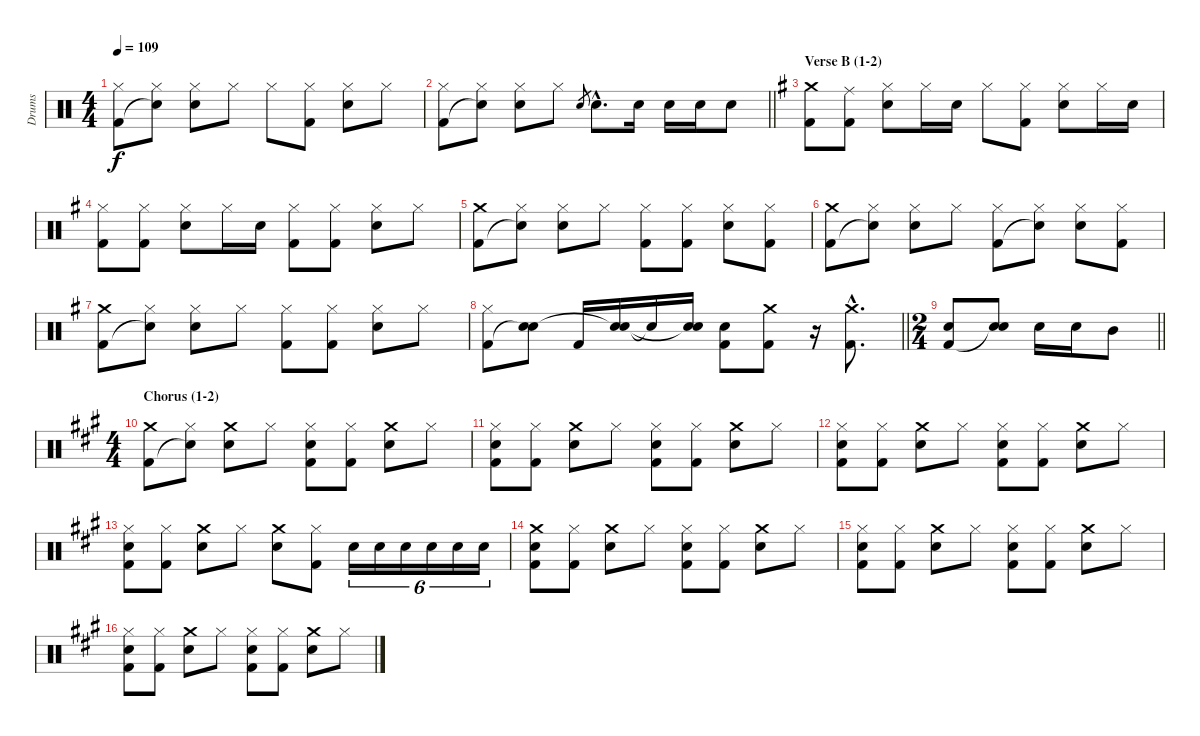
\track ("Drums" "Drums") {instrument percussion}
\staff {score}
\articulation defaults
\ts (4 4)
\tempo 109
\clef neutral
\ks aminor
("Hi-Hat (closed)" "Kick (hit) 2").8{dy f} ("Hi-Hat (closed)" "Snare (hit)"{t}).8 ("Hi-Hat (closed)" "Electric Snare (hit)").8 "Hi-Hat (closed)".8 "Hi-Hat (closed)".8 ("Hi-Hat (closed)" "Kick (hit) 2").8 ("Hi-Hat (closed)" "Electric Snare (hit)").8 "Hi-Hat (closed)".8 |
\barLineRight lightlight
("Hi-Hat (closed)" "Kick (hit) 2").8 ("Hi-Hat (closed)" "Snare (hit)"{t}).8 ("Hi-Hat (closed)" "Electric Snare (hit)").8 "Hi-Hat (closed)".8 "Electric Snare (hit)".8{gr} "Electric Snare (hit)"{hac}.8{d} "Electric Snare (hit)".16 "Electric Snare (hit)".16 "Electric Snare (hit)".16 "Electric Snare (hit)".8 |
\section ("" "Verse B (1-2)")
\ks eminor
("Crash medium (hit)" "Kick (hit) 2").8 ("Ride (middle)" "Kick (hit) 2").8 ("Hi-Hat (closed)" "Electric Snare (hit)").8 "Hi-Hat (closed)".16 "Electric Snare (hit)".16 "Hi-Hat (closed)".8 ("Hi-Hat (closed)" "Kick (hit) 2").8 ("Hi-Hat (closed)" "Electric Snare (hit)").8 "Hi-Hat (closed)".16 "Electric Snare (hit)".16 |
("Hi-Hat (closed)" "Kick (hit) 2").8 ("Hi-Hat (closed)" "Kick (hit) 2").8 ("Hi-Hat (closed)" "Electric Snare (hit)").8 "Hi-Hat (closed)".16 "Electric Snare (hit)".16 ("Hi-Hat (closed)" "Kick (hit) 2").8 ("Hi-Hat (closed)" "Kick (hit) 2").8 ("Hi-Hat (closed)" "Electric Snare (hit)").8 "Hi-Hat (closed)".8 |
("Crash medium (hit)" "Kick (hit) 2").8 ("Hi-Hat (closed)" "Snare (hit)"{t}).8 ("Hi-Hat (closed)" "Electric Snare (hit)").8 "Hi-Hat (closed)".8 ("Hi-Hat (closed)" "Kick (hit) 2").8 ("Hi-Hat (closed)" "Kick (hit) 2").8 ("Hi-Hat (closed)" "Electric Snare (hit)").8 ("Hi-Hat (closed)" "Kick (hit) 2").8 |
("Crash medium (hit)" "Kick (hit) 2").8 ("Hi-Hat (closed)" "Snare (hit)"{t}).8 ("Hi-Hat (closed)" "Electric Snare (hit)").8 "Hi-Hat (closed)".8 ("Hi-Hat (closed)" "Kick (hit) 2").8 ("Hi-Hat (closed)" "Snare (hit)"{t}).8 ("Hi-Hat (closed)" "Electric Snare (hit)").8 ("Hi-Hat (closed)" "Kick (hit) 2").8 |
("Crash medium (hit)" "Kick (hit) 2").8 ("Hi-Hat (closed)" "Snare (hit)"{t}).8 ("Hi-Hat (closed)" "Electric Snare (hit)").8 "Hi-Hat (closed)".8 ("Hi-Hat (closed)" "Kick (hit) 2").8 ("Hi-Hat (closed)" "Kick (hit) 2").8 ("Hi-Hat (closed)" "Electric Snare (hit)").8 "Hi-Hat (closed)".8 |
\barLineRight lightlight
("Hi-Hat (closed)" "Kick (hit) 2").8 ("Electric Snare (hit)" "Snare (hit)"{t}).8 "Kick (hit) 2".16 ("Electric Snare (hit)" "Snare (hit)"{t}).16 "Snare (hit)"{t}.16 ("Electric Snare (hit)" "Snare (hit)"{t}).16 ("Electric Snare (hit)" "Kick (hit) 2").8 ("Crash medium (hit)" "Kick (hit) 2").8 r.16 ("Crash medium (hit)"{hac} "Kick (hit) 2"{hac}).8{d} |
\ts (2 4)
\barLineRight lightlight
("Electric Snare (hit)" "Kick (hit) 2").8 ("Electric Snare (hit)" "Snare (hit)"{t}).8 "Electric Snare (hit)".16 "Electric Snare (hit)".16 "Mid Tom (hit)".8 |
\ts (4 4)
\section ("" "Chorus (1-2)")
\ks f#minor
("Crash medium (hit)" "Kick (hit) 2").8 ("Hi-Hat (closed)" "Snare (hit)"{t}).8 ("Crash medium (hit)" "Electric Snare (hit)").8 "Hi-Hat (closed)".8 ("Hi-Hat (closed)" "Electric Snare (hit)" "Kick (hit) 2").8 ("Hi-Hat (closed)" "Kick (hit) 2").8 ("Crash medium (hit)" "Electric Snare (hit)").8 "Hi-Hat (closed)".8 |
("Hi-Hat (closed)" "Electric Snare (hit)" "Kick (hit) 2").8 ("Hi-Hat (closed)" "Kick (hit) 2").8 ("Crash medium (hit)" "Electric Snare (hit)").8 "Hi-Hat (closed)".8 ("Hi-Hat (closed)" "Electric Snare (hit)" "Kick (hit) 2").8 ("Hi-Hat (closed)" "Kick (hit) 2").8 ("Crash medium (hit)" "Electric Snare (hit)").8 "Hi-Hat (closed)".8 |
("Hi-Hat (closed)" "Electric Snare (hit)" "Kick (hit) 2").8 ("Hi-Hat (closed)" "Kick (hit) 2").8 ("Crash medium (hit)" "Electric Snare (hit)").8 "Hi-Hat (closed)".8 ("Hi-Hat (closed)" "Electric Snare (hit)" "Kick (hit) 2").8 ("Hi-Hat (closed)" "Kick (hit) 2").8 ("Crash medium (hit)" "Electric Snare (hit)").8 "Hi-Hat (closed)".8 |
("Hi-Hat (closed)" "Electric Snare (hit)" "Kick (hit) 2").8 ("Hi-Hat (closed)" "Kick (hit) 2").8 ("Crash medium (hit)" "Electric Snare (hit)").8 "Hi-Hat (closed)".8 ("Crash medium (hit)" "Electric Snare (hit)").8 ("Hi-Hat (closed)" "Kick (hit) 2").8 "Electric Snare (hit)".16{tu (6 4)} "Electric Snare (hit)".16{tu (6 4)} "Electric Snare (hit)".16{tu (6 4)} "Electric Snare (hit)".16{tu (6 4)} "Electric Snare (hit)".16{tu (6 4)} "Electric Snare (hit)".16{tu (6 4)} |
("Crash medium (hit)" "Electric Snare (hit)" "Kick (hit) 2").8 ("Hi-Hat (closed)" "Kick (hit) 2").8 ("Crash medium (hit)" "Electric Snare (hit)").8 "Hi-Hat (closed)".8 ("Hi-Hat (closed)" "Electric Snare (hit)" "Kick (hit) 2").8 ("Hi-Hat (closed)" "Kick (hit) 2").8 ("Crash medium (hit)" "Electric Snare (hit)").8 "Hi-Hat (closed)".8 |
("Hi-Hat (closed)" "Electric Snare (hit)" "Kick (hit) 2").8 ("Hi-Hat (closed)" "Kick (hit) 2").8 ("Crash medium (hit)" "Electric Snare (hit)").8 "Hi-Hat (closed)".8 ("Hi-Hat (closed)" "Electric Snare (hit)" "Kick (hit) 2").8 ("Hi-Hat (closed)" "Kick (hit) 2").8 ("Crash medium (hit)" "Electric Snare (hit)").8 "Hi-Hat (closed)".8 |
("Hi-Hat (closed)" "Electric Snare (hit)" "Kick (hit) 2").8 ("Hi-Hat (closed)" "Kick (hit) 2").8 ("Crash medium (hit)" "Electric Snare (hit)").8 "Hi-Hat (closed)".8 ("Hi-Hat (closed)" "Electric Snare (hit)" "Kick (hit) 2").8 ("Hi-Hat (closed)" "Kick (hit) 2").8 ("Crash medium (hit)" "Electric Snare (hit)").8 "Hi-Hat (closed)".8
